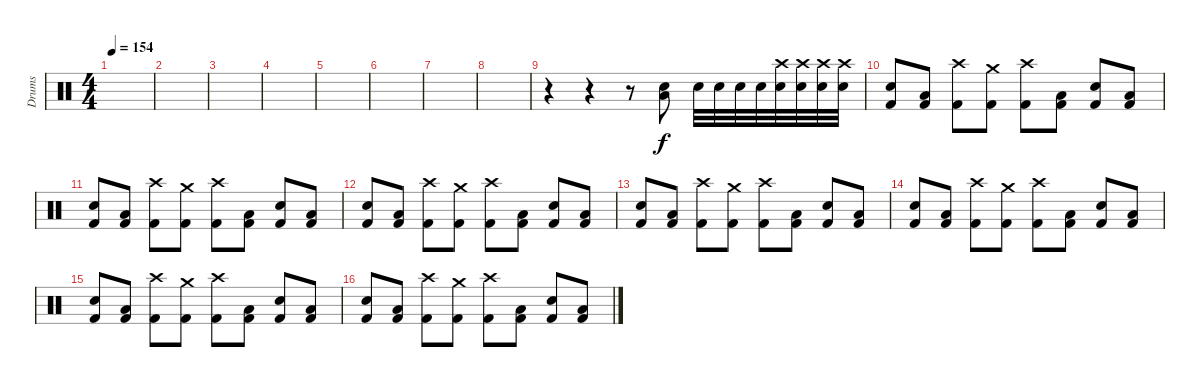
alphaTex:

\track ("Drums" "Drums") {instrument percussion}
\staff {score}
\articulation defaults
\ts (4 4)
\tempo 154
\clef neutral
\ks c
|
|
|
|
|
|
|
|
r.4 r.4 r.8 ("Snare (hit) 2" "Low Floor Tom (hit)").8 "Snare (hit) 2".32 "Snare (hit) 2".32 "Snare (hit) 2".32 "Snare (hit) 2".32 ("Snare (hit) 2" "Crash high (hit)").32 ("Snare (hit) 2" "Crash high (hit)").32 ("Snare (hit) 2" "Crash high (hit)").32 ("Snare (hit) 2" "Crash high (hit)").32 |
("Kick (hit) 2" "Snare (hit) 2").8 ("Kick (hit) 2" "Low Tom (hit)").8 ("Kick (hit) 2" "Crash high (hit)").8 ("Kick (hit) 2" "Crash medium (hit)").8 ("Kick (hit) 2" "Crash high (hit)").8 ("Kick (hit) 2" "Low Tom (hit)").8 ("Kick (hit) 2" "Snare (hit) 2").8 ("Kick (hit) 2" "Low Tom (hit)").8 |
("Kick (hit) 2" "Snare (hit) 2").8 ("Kick (hit) 2" "Low Tom (hit)").8 ("Kick (hit) 2" "Crash high (hit)").8 ("Kick (hit) 2" "Crash medium (hit)").8 ("Kick (hit) 2" "Crash high (hit)").8 ("Kick (hit) 2" "Low Tom (hit)").8 ("Kick (hit) 2" "Snare (hit) 2").8 ("Kick (hit) 2" "Low Tom (hit)").8 |
("Kick (hit) 2" "Snare (hit) 2").8 ("Kick (hit) 2" "Low Tom (hit)").8 ("Kick (hit) 2" "Crash high (hit)").8 ("Kick (hit) 2" "Crash medium (hit)").8 ("Kick (hit) 2" "Crash high (hit)").8 ("Kick (hit) 2" "Low Tom (hit)").8 ("Kick (hit) 2" "Snare (hit) 2").8 ("Kick (hit) 2" "Low Tom (hit)").8 |
("Kick (hit) 2" "Snare (hit) 2").8 ("Kick (hit) 2" "Low Tom (hit)").8 ("Kick (hit) 2" "Crash high (hit)").8 ("Kick (hit) 2" "Crash medium (hit)").8 ("Kick (hit) 2" "Crash high (hit)").8 ("Kick (hit) 2" "Low Tom (hit)").8 ("Kick (hit) 2" "Snare (hit) 2").8 ("Kick (hit) 2" "Low Tom (hit)").8 |
("Kick (hit) 2" "Snare (hit) 2").8 ("Kick (hit) 2" "Low Tom (hit)").8 ("Kick (hit) 2" "Crash high (hit)").8 ("Kick (hit) 2" "Crash medium (hit)").8 ("Kick (hit) 2" "Crash high (hit)").8 ("Kick (hit) 2" "Low Tom (hit)").8 ("Kick (hit) 2" "Snare (hit) 2").8 ("Kick (hit) 2" "Low Tom (hit)").8 |
("Kick (hit) 2" "Snare (hit) 2").8 ("Kick (hit) 2" "Low Tom (hit)").8 ("Kick (hit) 2" "Crash high (hit)").8 ("Kick (hit) 2" "Crash medium (hit)").8 ("Kick (hit) 2" "Crash high (hit)").8 ("Kick (hit) 2" "Low Tom (hit)").8 ("Kick (hit) 2" "Snare (hit) 2").8 ("Kick (hit) 2" "Low Tom (hit)").8 |
("Kick (hit) 2" "Snare (hit) 2").8 ("Kick (hit) 2" "Low Tom (hit)").8 ("Kick (hit) 2" "Crash high (hit)").8 ("Kick (hit) 2" "Crash medium (hit)").8 ("Kick (hit) 2" "Crash high (hit)").8 ("Kick (hit) 2" "Low Tom (hit)").8 ("Kick (hit) 2" "Snare (hit) 2").8 ("Kick (hit) 2" "Low Tom (hit)").8
